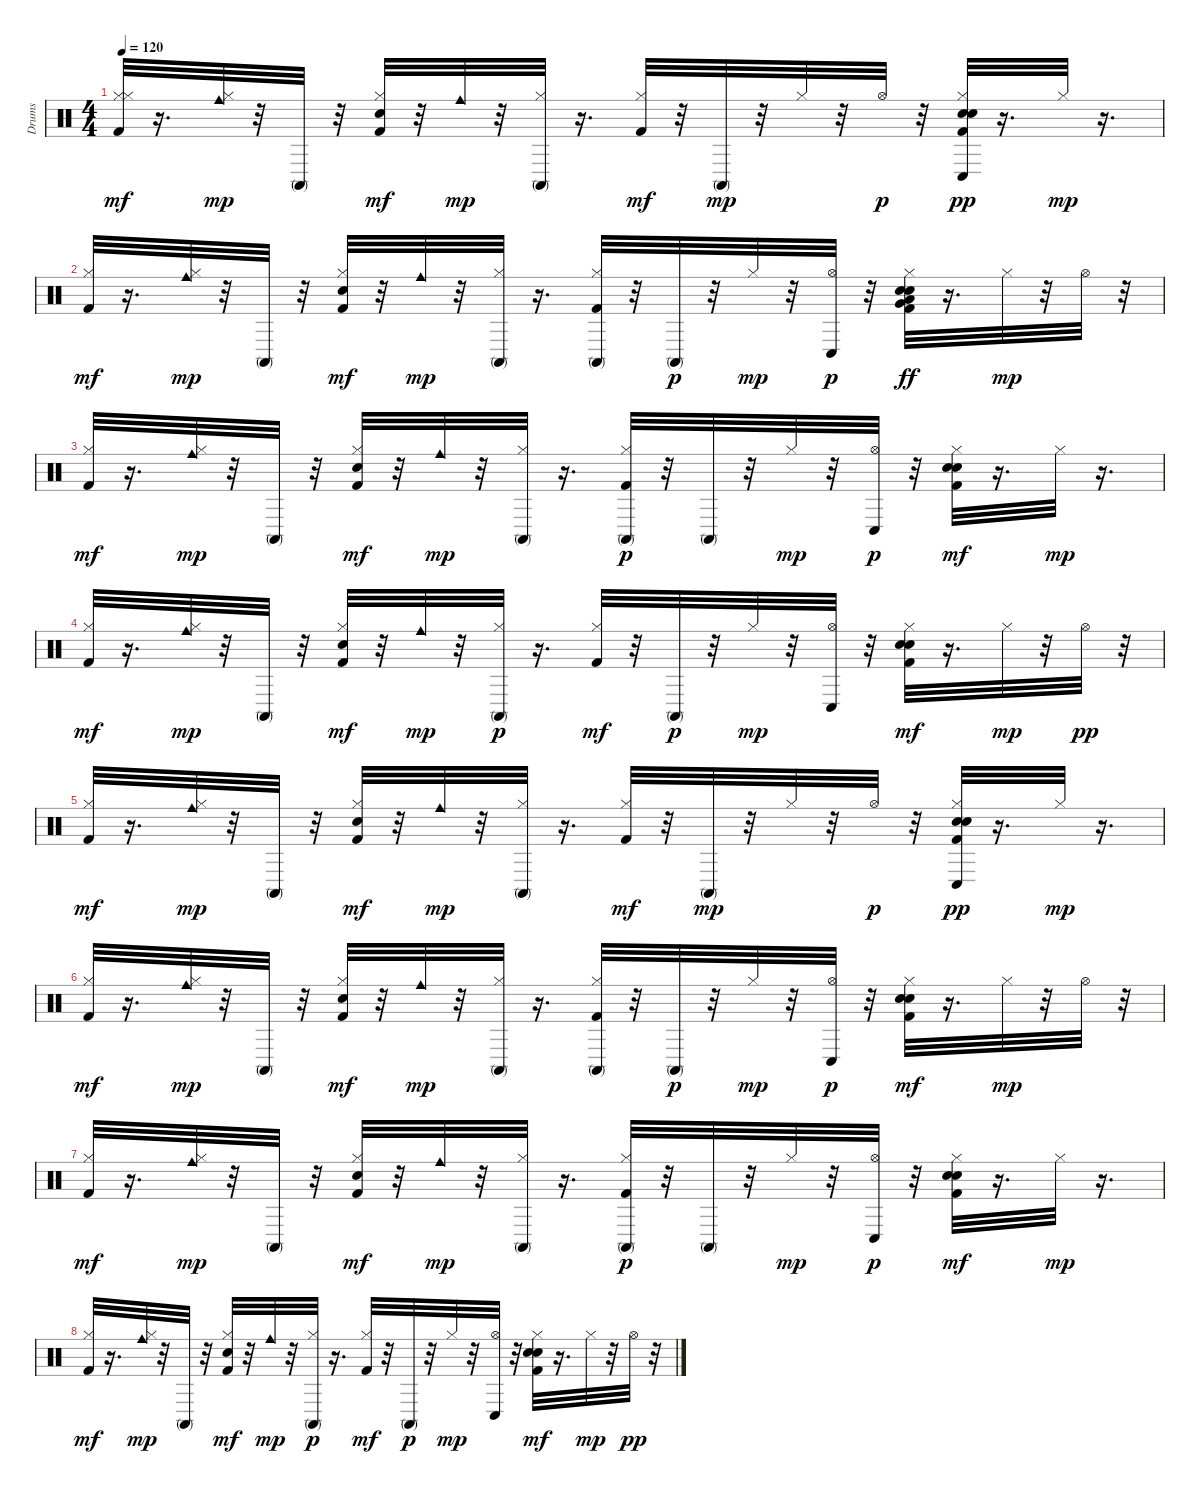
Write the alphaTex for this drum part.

\track ("Drums" "Drums") {instrument percussion}
\staff {score}
\articulation defaults
\ts (4 4)
\tempo 120
\clef neutral
\ks c
("Hi-Hat (closed)" "Hi-Hat (closed)" "Kick (hit) 2").32{dy mf} r.16{d} ("Hi-Hat (closed)" "Cowbell medium (hit)").32{dy mp} r.32 "Conga high (mute)".32 r.32 ("Hi-Hat (closed)" "Electric Snare (hit)" "Kick (hit) 2").32{dy mf} r.32 "Cowbell medium (hit)".32{dy mp} r.32 ("Hi-Hat (closed)" "Conga high (mute)").32 r.16{d} ("Hi-Hat (closed)" "Kick (hit) 2").32{dy mf} r.32 "Conga high (mute)".32{dy mp} r.32 "Hi-Hat (closed)".32 r.32 "Hi-Hat (open)".32{dy p} r.32 ("Hi-Hat (closed)" "Kick (hit) 2" "Hand Clap (hit)" "Electric Snare (hit)" "Conga low (hit)").32{dy pp} r.16{d} "Hi-Hat (closed)".32{dy mp} r.16{d} |
("Hi-Hat (closed)" "Kick (hit) 2").32{dy mf} r.16{d} ("Hi-Hat (closed)" "Cowbell medium (hit)").32{dy mp} r.32 "Conga high (mute)".32 r.32 ("Hi-Hat (closed)" "Electric Snare (hit)" "Kick (hit) 2").32{dy mf} r.32 "Cowbell medium (hit)".32{dy mp} r.32 ("Hi-Hat (closed)" "Conga high (mute)").32 r.16{d} ("Hi-Hat (closed)" "Kick (hit) 2" "Conga high (mute)").32 r.32 "Conga high (mute)".32{dy p} r.32 "Hi-Hat (closed)".32{dy mp} r.32 ("Hi-Hat (open)" "Conga low (hit)").32{dy p} r.32 ("Kick (hit) 2" "Hi-Hat (closed)" "Electric Snare (hit)" "Hand Clap (hit)" "Low Floor Tom (hit)" "Very Low Tom (hit)").32{dy ff} r.16{d} "Hi-Hat (closed)".32{dy mp} r.32 "Hi-Hat (open)".32 r.32 |
("Hi-Hat (closed)" "Kick (hit) 2").32{dy mf} r.16{d} ("Hi-Hat (closed)" "Cowbell medium (hit)").32{dy mp} r.32 "Conga high (mute)".32 r.32 ("Hi-Hat (closed)" "Electric Snare (hit)" "Kick (hit) 2").32{dy mf} r.32 "Cowbell medium (hit)".32{dy mp} r.32 ("Hi-Hat (closed)" "Conga high (mute)").32 r.16{d} ("Kick (hit) 2" "Hi-Hat (closed)" "Conga high (mute)").32{dy p} r.32 "Conga high (mute)".32 r.32 "Hi-Hat (closed)".32{dy mp} r.32 ("Hi-Hat (open)" "Conga low (hit)").32{dy p} r.32 ("Hi-Hat (closed)" "Hand Clap (hit)" "Electric Snare (hit)" "Kick (hit) 2").32{dy mf} r.16{d} "Hi-Hat (closed)".32{dy mp} r.16{d} |
("Hi-Hat (closed)" "Kick (hit) 2").32{dy mf} r.16{d} ("Hi-Hat (closed)" "Cowbell medium (hit)").32{dy mp} r.32 "Conga high (mute)".32 r.32 ("Hi-Hat (closed)" "Electric Snare (hit)" "Kick (hit) 2").32{dy mf} r.32 "Cowbell medium (hit)".32{dy mp} r.32 ("Hi-Hat (closed)" "Conga high (mute)").32{dy p} r.16{d} ("Hi-Hat (closed)" "Kick (hit) 2").32{dy mf} r.32 "Conga high (mute)".32{dy p} r.32 "Hi-Hat (closed)".32{dy mp} r.32 ("Hi-Hat (open)" "Conga low (hit)").32 r.32 ("Kick (hit) 2" "Hi-Hat (closed)" "Electric Snare (hit)" "Hand Clap (hit)").32{dy mf} r.16{d} "Hi-Hat (closed)".32{dy mp} r.32 "Hi-Hat (open)".32{dy pp} r.32 |
("Hi-Hat (closed)" "Kick (hit) 2").32{dy mf} r.16{d} ("Hi-Hat (closed)" "Cowbell medium (hit)").32{dy mp} r.32 "Conga high (mute)".32 r.32 ("Hi-Hat (closed)" "Electric Snare (hit)" "Kick (hit) 2").32{dy mf} r.32 "Cowbell medium (hit)".32{dy mp} r.32 ("Hi-Hat (closed)" "Conga high (mute)").32 r.16{d} ("Hi-Hat (closed)" "Kick (hit) 2").32{dy mf} r.32 "Conga high (mute)".32{dy mp} r.32 "Hi-Hat (closed)".32 r.32 "Hi-Hat (open)".32{dy p} r.32 ("Hi-Hat (closed)" "Kick (hit) 2" "Hand Clap (hit)" "Electric Snare (hit)" "Conga low (hit)").32{dy pp} r.16{d} "Hi-Hat (closed)".32{dy mp} r.16{d} |
("Hi-Hat (closed)" "Kick (hit) 2").32{dy mf} r.16{d} ("Hi-Hat (closed)" "Cowbell medium (hit)").32{dy mp} r.32 "Conga high (mute)".32 r.32 ("Hi-Hat (closed)" "Electric Snare (hit)" "Kick (hit) 2").32{dy mf} r.32 "Cowbell medium (hit)".32{dy mp} r.32 ("Hi-Hat (closed)" "Conga high (mute)").32 r.16{d} ("Hi-Hat (closed)" "Kick (hit) 2" "Conga high (mute)").32 r.32 "Conga high (mute)".32{dy p} r.32 "Hi-Hat (closed)".32{dy mp} r.32 ("Hi-Hat (open)" "Conga low (hit)").32{dy p} r.32 ("Kick (hit) 2" "Hi-Hat (closed)" "Electric Snare (hit)" "Hand Clap (hit)").32{dy mf} r.16{d} "Hi-Hat (closed)".32{dy mp} r.32 "Hi-Hat (open)".32 r.32 |
("Hi-Hat (closed)" "Kick (hit) 2").32{dy mf} r.16{d} ("Hi-Hat (closed)" "Cowbell medium (hit)").32{dy mp} r.32 "Conga high (mute)".32 r.32 ("Hi-Hat (closed)" "Electric Snare (hit)" "Kick (hit) 2").32{dy mf} r.32 "Cowbell medium (hit)".32{dy mp} r.32 ("Hi-Hat (closed)" "Conga high (mute)").32 r.16{d} ("Kick (hit) 2" "Hi-Hat (closed)" "Conga high (mute)").32{dy p} r.32 "Conga high (mute)".32 r.32 "Hi-Hat (closed)".32{dy mp} r.32 ("Hi-Hat (open)" "Conga low (hit)").32{dy p} r.32 ("Hi-Hat (closed)" "Hand Clap (hit)" "Electric Snare (hit)" "Kick (hit) 2").32{dy mf} r.16{d} "Hi-Hat (closed)".32{dy mp} r.16{d} |
("Hi-Hat (closed)" "Kick (hit) 2").32{dy mf} r.16{d} ("Hi-Hat (closed)" "Cowbell medium (hit)").32{dy mp} r.32 "Conga high (mute)".32 r.32 ("Hi-Hat (closed)" "Electric Snare (hit)" "Kick (hit) 2").32{dy mf} r.32 "Cowbell medium (hit)".32{dy mp} r.32 ("Hi-Hat (closed)" "Conga high (mute)").32{dy p} r.16{d} ("Hi-Hat (closed)" "Kick (hit) 2").32{dy mf} r.32 "Conga high (mute)".32{dy p} r.32 "Hi-Hat (closed)".32{dy mp} r.32 ("Hi-Hat (open)" "Conga low (hit)").32 r.32 ("Kick (hit) 2" "Hi-Hat (closed)" "Electric Snare (hit)" "Hand Clap (hit)").32{dy mf} r.16{d} "Hi-Hat (closed)".32{dy mp} r.32 "Hi-Hat (open)".32{dy pp} r.32
